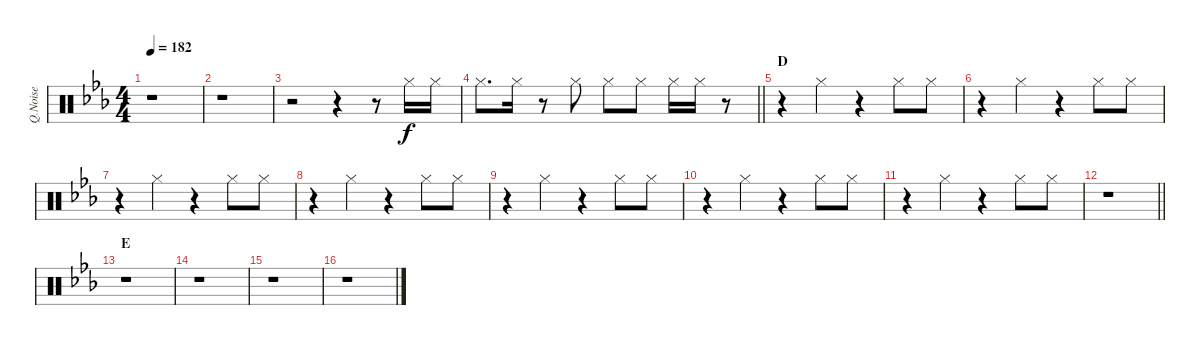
\track ("Q.Noise" "Q.Noise") {instrument percussion}
\staff {score}
\articulation defaults
\ts (4 4)
\tempo 182
\clef neutral
\ks eb
r.1{dy f} |
r.1 |
r.2 r.4 r.8 "Hi-Hat (closed)".16 "Hi-Hat (closed)".16 |
\barLineRight lightlight "Hi-Hat (closed)".8{d} "Hi-Hat (closed)".16
r.8 "Hi-Hat (closed)".8 "Hi-Hat (closed)".8 "Hi-Hat (closed)".8 "Hi-Hat (closed)".16 "Hi-Hat (closed)".16 r.8 |
\section ("" "D")
r.4 "Hi-Hat (closed)".4 r.4 "Hi-Hat (closed)".8 "Hi-Hat (closed)".8 |
r.4 "Hi-Hat (closed)".4 r.4 "Hi-Hat (closed)".8 "Hi-Hat (closed)".8 |
r.4 "Hi-Hat (closed)".4 r.4 "Hi-Hat (closed)".8 "Hi-Hat (closed)".8 |
r.4 "Hi-Hat (closed)".4 r.4 "Hi-Hat (closed)".8 "Hi-Hat (closed)".8 |
r.4 "Hi-Hat (closed)".4 r.4 "Hi-Hat (closed)".8 "Hi-Hat (closed)".8 |
r.4 "Hi-Hat (closed)".4 r.4 "Hi-Hat (closed)".8 "Hi-Hat (closed)".8 |
r.4 "Hi-Hat (closed)".4 r.4 "Hi-Hat (closed)".8 "Hi-Hat (closed)".8 |
\barLineRight lightlight
r.1 |
\section ("" "E")
r.1 |
r.1 |
r.1 |
r.1
